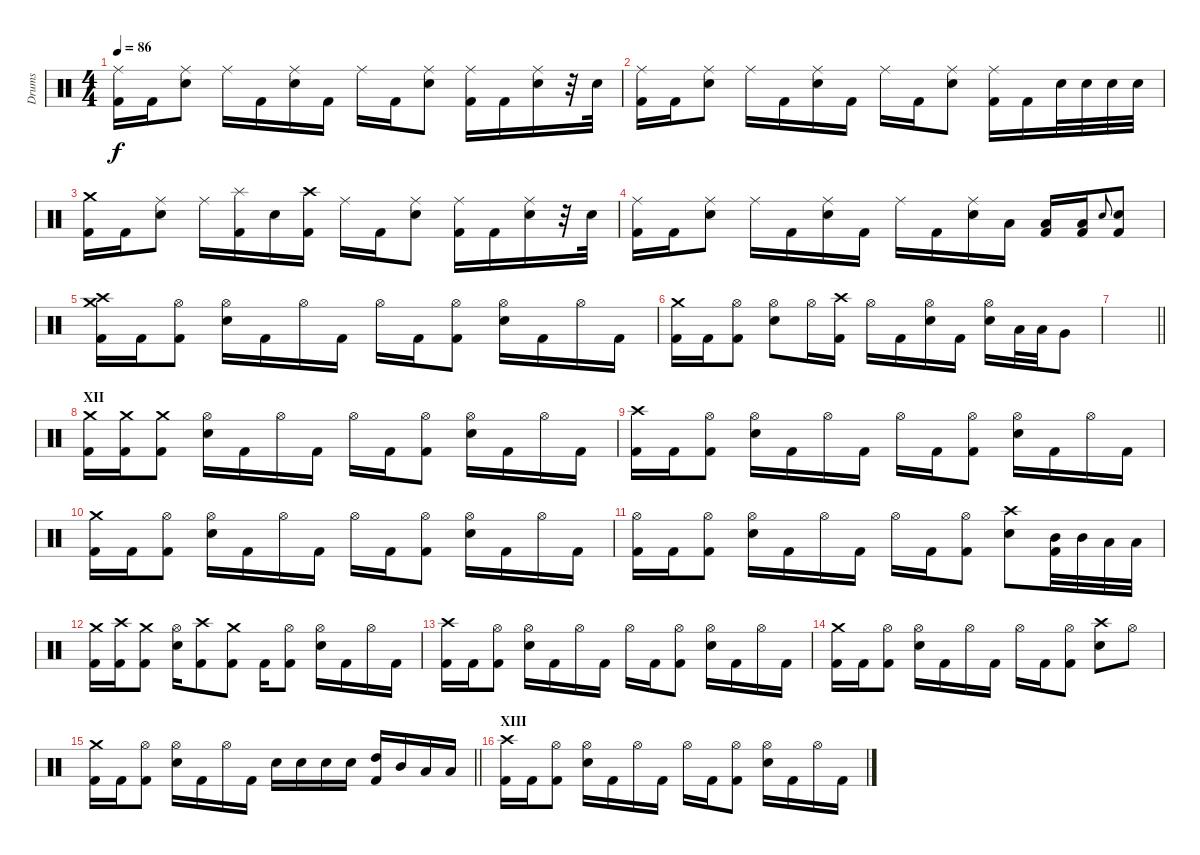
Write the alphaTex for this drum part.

\track ("Drums" "Drums") {instrument percussion}
\staff {score}
\articulation defaults
\ts (4 4)
\tempo 86
\clef neutral
\ks c
("Ride (middle)" "Kick (hit) 2").16{dy f} "Kick (hit) 2".16 ("Ride (middle)" "Electric Snare (hit)").8 "Ride (middle)".16 "Kick (hit) 2".16 ("Ride (middle)" "Electric Snare (hit)").16 "Kick (hit) 2".16 "Ride (middle)".16 "Kick (hit) 2".16 ("Ride (middle)" "Electric Snare (hit)").8 ("Ride (middle)" "Kick (hit) 2").16 "Kick (hit) 2".16 ("Ride (middle)" "Electric Snare (hit)").16 r.32 "Electric Snare (hit)".32 |
("Ride (middle)" "Kick (hit) 2").16 "Kick (hit) 2".16 ("Ride (middle)" "Electric Snare (hit)").8 "Ride (middle)".16 "Kick (hit) 2".16 ("Ride (middle)" "Electric Snare (hit)").16 "Kick (hit) 2".16 "Ride (middle)".16 "Kick (hit) 2".16 ("Ride (middle)" "Electric Snare (hit)").8 ("Ride (middle)" "Kick (hit) 2").16 "Kick (hit) 2".16 "Electric Snare (hit)".32 "Electric Snare (hit)".32 "Electric Snare (hit)".32 "Electric Snare (hit)".32 |
("Kick (hit) 2" "Crash medium (hit)").16 "Kick (hit) 2".16 ("Ride (middle)" "Electric Snare (hit)").8 "Ride (middle)".16 ("Kick (hit) 2" "Splash (hit)").16 "Electric Snare (hit)".16 ("Kick (hit) 2" "Crash high (hit)").16 "Ride (middle)".16 "Kick (hit) 2".16 ("Ride (middle)" "Electric Snare (hit)").8 ("Ride (middle)" "Kick (hit) 2").16 "Kick (hit) 2".16 ("Ride (middle)" "Electric Snare (hit)").16 r.32 "Electric Snare (hit)".32 |
("Ride (middle)" "Kick (hit) 2").16 "Kick (hit) 2".16 ("Ride (middle)" "Electric Snare (hit)").8 "Ride (middle)".16 "Kick (hit) 2".16 ("Ride (middle)" "Electric Snare (hit)").16 "Kick (hit) 2".16 "Ride (middle)".16 "Kick (hit) 2".16 ("Ride (middle)" "Electric Snare (hit)").16 "Low Tom (hit)".16 ("Low Floor Tom (hit)" "Kick (hit) 2").16 ("Low Floor Tom (hit)" "Kick (hit) 2").16 "Electric Snare (hit)".8{gr onbeat} ("Electric Snare (hit)" "Kick (hit) 2").8 |
("Kick (hit) 2" "Crash medium (hit)" "Crash high (hit)").16 "Kick (hit) 2".16 ("Hi-Hat (open)" "Kick (hit) 2").8 ("Hi-Hat (open)" "Electric Snare (hit)").16 "Kick (hit) 2".16 "Hi-Hat (open)".16 "Kick (hit) 2".16 "Hi-Hat (open)".16 "Kick (hit) 2".16 ("Hi-Hat (open)" "Kick (hit) 2").8 ("Hi-Hat (open)" "Electric Snare (hit)").16 "Kick (hit) 2".16 "Hi-Hat (open)".16 "Kick (hit) 2".16 |
("Kick (hit) 2" "Crash medium (hit)").16 "Kick (hit) 2".16 ("Hi-Hat (open)" "Kick (hit) 2").8 ("Hi-Hat (open)" "Electric Snare (hit)").8 "Hi-Hat (open)".16 ("Kick (hit) 2" "Crash high (hit)").16 "Hi-Hat (open)".16 "Kick (hit) 2".16 ("Hi-Hat (open)" "Electric Snare (hit)").16 "Kick (hit) 2".16 ("Hi-Hat (open)" "Electric Snare (hit)").16 "Low Tom (hit)".32 "Low Tom (hit)".32 "Very Low Tom (hit)".8 |
\barLineRight lightlight
|
\section ("" "XII")
("Kick (hit) 2" "Crash medium (hit)").16 ("Kick (hit) 2" "Crash medium (hit)").16 ("Kick (hit) 2" "Crash medium (hit)").8 ("Hi-Hat (open)" "Electric Snare (hit)").16 "Kick (hit) 2".16 "Hi-Hat (open)".16 "Kick (hit) 2".16 "Hi-Hat (open)".16 "Kick (hit) 2".16 ("Hi-Hat (open)" "Kick (hit) 2").8 ("Hi-Hat (open)" "Electric Snare (hit)").16 "Kick (hit) 2".16 "Hi-Hat (open)".16 "Kick (hit) 2".16 |
("Kick (hit) 2" "Crash high (hit)").16 "Kick (hit) 2".16 ("Hi-Hat (open)" "Kick (hit) 2").8 ("Hi-Hat (open)" "Electric Snare (hit)").16 "Kick (hit) 2".16 "Hi-Hat (open)".16 "Kick (hit) 2".16 "Hi-Hat (open)".16 "Kick (hit) 2".16 ("Hi-Hat (open)" "Kick (hit) 2").8 ("Hi-Hat (open)" "Electric Snare (hit)").16 "Kick (hit) 2".16 "Hi-Hat (open)".16 "Kick (hit) 2".16 |
("Kick (hit) 2" "Crash medium (hit)").16 "Kick (hit) 2".16 ("Hi-Hat (open)" "Kick (hit) 2").8 ("Hi-Hat (open)" "Electric Snare (hit)").16 "Kick (hit) 2".16 "Hi-Hat (open)".16 "Kick (hit) 2".16 "Hi-Hat (open)".16 "Kick (hit) 2".16 ("Hi-Hat (open)" "Kick (hit) 2").8 ("Hi-Hat (open)" "Electric Snare (hit)").16 "Kick (hit) 2".16 "Hi-Hat (open)".16 "Kick (hit) 2".16 |
("Hi-Hat (open)" "Kick (hit) 2").16 "Kick (hit) 2".16 ("Hi-Hat (open)" "Kick (hit) 2").8 ("Hi-Hat (open)" "Electric Snare (hit)").16 "Kick (hit) 2".16 "Hi-Hat (open)".16 "Kick (hit) 2".16 "Hi-Hat (open)".16 "Kick (hit) 2".16 ("Hi-Hat (open)" "Kick (hit) 2").8 ("Crash high (hit)" "Electric Snare (hit)").8 ("Mid Tom (hit)" "Kick (hit) 2").32 "Mid Tom (hit)".32 "Low Tom (hit)".32 "Low Tom (hit)".32 |
("Kick (hit) 2" "Crash medium (hit)").16 ("Kick (hit) 2" "Crash high (hit)").16 ("Kick (hit) 2" "Crash medium (hit)").8 ("Hi-Hat (open)" "Electric Snare (hit)").16 ("Kick (hit) 2" "Crash high (hit)").8 ("Kick (hit) 2" "Crash medium (hit)").8 "Kick (hit) 2".16 ("Hi-Hat (open)" "Kick (hit) 2").8 ("Hi-Hat (open)" "Electric Snare (hit)").16 "Kick (hit) 2".16 "Hi-Hat (open)".16 "Kick (hit) 2".16 |
("Kick (hit) 2" "Crash high (hit)").16 "Kick (hit) 2".16 ("Hi-Hat (open)" "Kick (hit) 2").8 ("Hi-Hat (open)" "Electric Snare (hit)").16 "Kick (hit) 2".16 "Hi-Hat (open)".16 "Kick (hit) 2".16 "Hi-Hat (open)".16 "Kick (hit) 2".16 ("Hi-Hat (open)" "Kick (hit) 2").8 ("Hi-Hat (open)" "Electric Snare (hit)").16 "Kick (hit) 2".16 "Hi-Hat (open)".16 "Kick (hit) 2".16 |
("Kick (hit) 2" "Crash medium (hit)").16 "Kick (hit) 2".16 ("Hi-Hat (open)" "Kick (hit) 2").8 ("Hi-Hat (open)" "Electric Snare (hit)").16 "Kick (hit) 2".16 "Hi-Hat (open)".16 "Kick (hit) 2".16 "Hi-Hat (open)".16 "Kick (hit) 2".16 ("Hi-Hat (open)" "Kick (hit) 2").8 ("Crash high (hit)" "Electric Snare (hit)").8 "Hi-Hat (open)".8 |
\barLineRight lightlight
("Kick (hit) 2" "Crash medium (hit)").16 "Kick (hit) 2".16 ("Hi-Hat (open)" "Kick (hit) 2").8 ("Hi-Hat (open)" "Electric Snare (hit)").16 "Kick (hit) 2".16 "Hi-Hat (open)".16 "Kick (hit) 2".16 "Electric Snare (hit)".16 "Electric Snare (hit)".16 "Electric Snare (hit)".16 "Electric Snare (hit)".16 ("High Tom (hit)" "Kick (hit) 2").16 "Mid Tom (hit)".16 "Low Tom (hit)".16 "Low Tom (hit)".16 |
\section ("" "XIII")
("Kick (hit) 2" "Crash high (hit)").16 "Kick (hit) 2".16 ("Hi-Hat (open)" "Kick (hit) 2").8 ("Hi-Hat (open)" "Electric Snare (hit)").16 "Kick (hit) 2".16 "Hi-Hat (open)".16 "Kick (hit) 2".16 "Hi-Hat (open)".16 "Kick (hit) 2".16 ("Hi-Hat (open)" "Kick (hit) 2").8 ("Hi-Hat (open)" "Electric Snare (hit)").16 "Kick (hit) 2".16 "Hi-Hat (open)".16 "Kick (hit) 2".16
